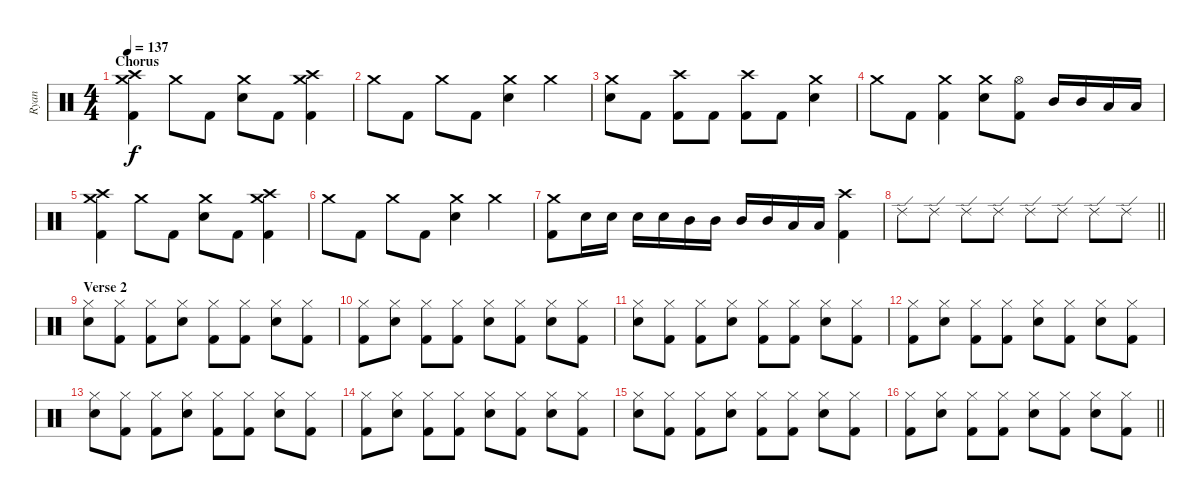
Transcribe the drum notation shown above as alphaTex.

\track ("Ryan" "Ryan") {instrument percussion}
\staff {score}
\articulation defaults
\ts (4 4)
\section ("" "Chorus")
\tempo 137
\clef neutral
\ks c
("Crash medium (hit)" "Crash high (hit)" "Kick (hit) 2").4{dy f} "Crash medium (hit)".8 "Kick (hit) 2".8 ("Crash medium (hit)" "Electric Snare (hit)").8 "Kick (hit) 2".8 ("Crash medium (hit)" "Crash high (hit)" "Kick (hit) 2").4 |
"Crash medium (hit)".8 "Kick (hit) 2".8 "Crash medium (hit)".8 "Kick (hit) 2".8 ("Crash medium (hit)" "Electric Snare (hit)").4 "Crash medium (hit)".4 |
("Crash medium (hit)" "Electric Snare (hit)").8 "Kick (hit) 2".8 ("Crash high (hit)" "Kick (hit) 2").8 "Kick (hit) 2".8 ("Crash high (hit)" "Kick (hit) 2").8 "Kick (hit) 2".8 ("Crash medium (hit)" "Electric Snare (hit)").4 |
"Crash medium (hit)".8 "Kick (hit) 2".8 ("Crash medium (hit)" "Kick (hit) 2").4 ("Crash medium (hit)" "Electric Snare (hit)").8 ("Hi-Hat (open)" "Kick (hit) 2").8 "Mid Tom (hit)".16 "Mid Tom (hit)".16 "Low Tom (hit)".16 "Low Tom (hit)".16 |
("Crash medium (hit)" "Crash high (hit)" "Kick (hit) 2").4 "Crash medium (hit)".8 "Kick (hit) 2".8 ("Crash medium (hit)" "Electric Snare (hit)").8 "Kick (hit) 2".8 ("Crash medium (hit)" "Crash high (hit)" "Kick (hit) 2").4 |
"Crash medium (hit)".8 "Kick (hit) 2".8 "Crash medium (hit)".8 "Kick (hit) 2".8 ("Crash medium (hit)" "Electric Snare (hit)").4 "Crash medium (hit)".4 |
("Crash medium (hit)" "Kick (hit) 2").8 "Electric Snare (hit)".16 "Electric Snare (hit)".16 "Electric Snare (hit)".16 "Electric Snare (hit)".16 "Mid Tom (hit)".16 "Mid Tom (hit)".16 "Mid Tom (hit)".16 "Mid Tom (hit)".16 "Low Tom (hit)".16 "Low Tom (hit)".16 ("Crash high (hit)" "Kick (hit) 2").4 |
\barLineRight lightlight "Ride (edge) 2".8 "Ride (edge) 2".8 "Ride (edge) 2".8 "Ride (edge) 2".8 "Ride (edge) 2".8 "Ride (edge) 2".8 "Ride (edge) 2".8 "Ride (edge) 2".8
|
\section ("" "Verse 2")
("Hi-Hat (closed)" "Electric Snare (hit)").8 ("Hi-Hat (closed)" "Kick (hit) 2").8 ("Hi-Hat (closed)" "Kick (hit) 2").8 ("Hi-Hat (closed)" "Electric Snare (hit)").8 ("Hi-Hat (closed)" "Kick (hit) 2").8 ("Hi-Hat (closed)" "Kick (hit) 2").8 ("Hi-Hat (closed)" "Electric Snare (hit)").8 ("Hi-Hat (closed)" "Kick (hit) 2").8 |
("Hi-Hat (closed)" "Kick (hit) 2").8 ("Hi-Hat (closed)" "Electric Snare (hit)").8 ("Hi-Hat (closed)" "Kick (hit) 2").8 ("Hi-Hat (closed)" "Kick (hit) 2").8 ("Hi-Hat (closed)" "Electric Snare (hit)").8 ("Hi-Hat (closed)" "Kick (hit) 2").8 ("Hi-Hat (closed)" "Electric Snare (hit)").8 ("Hi-Hat (closed)" "Kick (hit) 2").8 |
("Hi-Hat (closed)" "Electric Snare (hit)").8 ("Hi-Hat (closed)" "Kick (hit) 2").8 ("Hi-Hat (closed)" "Kick (hit) 2").8 ("Hi-Hat (closed)" "Electric Snare (hit)").8 ("Hi-Hat (closed)" "Kick (hit) 2").8 ("Hi-Hat (closed)" "Kick (hit) 2").8 ("Hi-Hat (closed)" "Electric Snare (hit)").8 ("Hi-Hat (closed)" "Kick (hit) 2").8 |
("Hi-Hat (closed)" "Kick (hit) 2").8 ("Hi-Hat (closed)" "Electric Snare (hit)").8 ("Hi-Hat (closed)" "Kick (hit) 2").8 ("Hi-Hat (closed)" "Kick (hit) 2").8 ("Hi-Hat (closed)" "Electric Snare (hit)").8 ("Hi-Hat (closed)" "Kick (hit) 2").8 ("Hi-Hat (closed)" "Electric Snare (hit)").8 ("Hi-Hat (closed)" "Kick (hit) 2").8 |
("Hi-Hat (closed)" "Electric Snare (hit)").8 ("Hi-Hat (closed)" "Kick (hit) 2").8 ("Hi-Hat (closed)" "Kick (hit) 2").8 ("Hi-Hat (closed)" "Electric Snare (hit)").8 ("Hi-Hat (closed)" "Kick (hit) 2").8 ("Hi-Hat (closed)" "Kick (hit) 2").8 ("Hi-Hat (closed)" "Electric Snare (hit)").8 ("Hi-Hat (closed)" "Kick (hit) 2").8 |
("Hi-Hat (closed)" "Kick (hit) 2").8 ("Hi-Hat (closed)" "Electric Snare (hit)").8 ("Hi-Hat (closed)" "Kick (hit) 2").8 ("Hi-Hat (closed)" "Kick (hit) 2").8 ("Hi-Hat (closed)" "Electric Snare (hit)").8 ("Hi-Hat (closed)" "Kick (hit) 2").8 ("Hi-Hat (closed)" "Electric Snare (hit)").8 ("Hi-Hat (closed)" "Kick (hit) 2").8 |
("Hi-Hat (closed)" "Electric Snare (hit)").8 ("Hi-Hat (closed)" "Kick (hit) 2").8 ("Hi-Hat (closed)" "Kick (hit) 2").8 ("Hi-Hat (closed)" "Electric Snare (hit)").8 ("Hi-Hat (closed)" "Kick (hit) 2").8 ("Hi-Hat (closed)" "Kick (hit) 2").8 ("Hi-Hat (closed)" "Electric Snare (hit)").8 ("Hi-Hat (closed)" "Kick (hit) 2").8 |
\barLineRight lightlight
("Hi-Hat (closed)" "Kick (hit) 2").8 ("Hi-Hat (closed)" "Electric Snare (hit)").8 ("Hi-Hat (closed)" "Kick (hit) 2").8 ("Hi-Hat (closed)" "Kick (hit) 2").8 ("Hi-Hat (closed)" "Electric Snare (hit)").8 ("Hi-Hat (closed)" "Kick (hit) 2").8 ("Hi-Hat (closed)" "Electric Snare (hit)").8 ("Hi-Hat (closed)" "Kick (hit) 2").8
